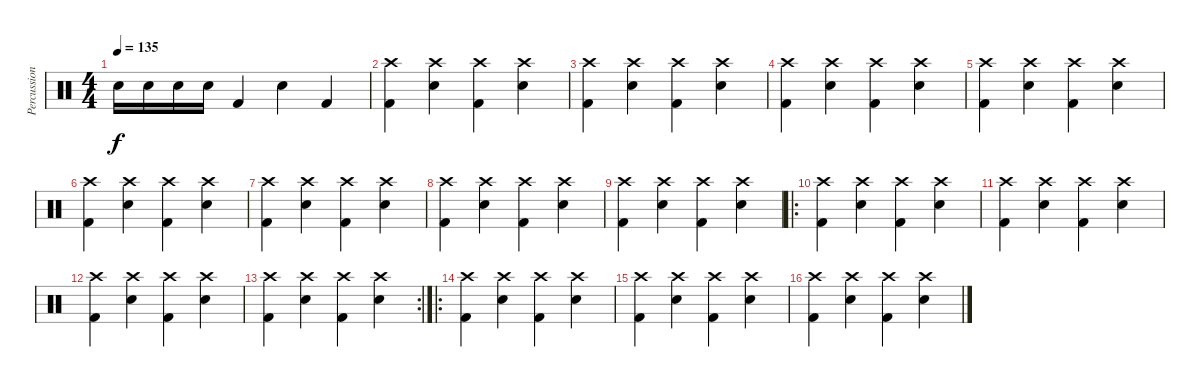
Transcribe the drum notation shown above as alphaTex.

\track ("Percussion" "Percussion") {instrument percussion}
\staff {score}
\articulation defaults
\ts (4 4)
\tempo 135
\clef neutral
\ks c "Electric Snare (hit)".16{dy f} "Electric Snare (hit)".16 "Electric Snare (hit)".16 "Electric Snare (hit)".16 "Kick (hit) 2".4 "Electric Snare (hit)".4 "Kick (hit) 2".4
|
("Kick (hit) 2" "Crash high (hit)").4 ("Electric Snare (hit)" "Crash high (hit)").4 ("Kick (hit) 2" "Crash high (hit)").4 ("Electric Snare (hit)" "Crash high (hit)").4 |
("Kick (hit) 2" "Crash high (hit)").4 ("Electric Snare (hit)" "Crash high (hit)").4 ("Kick (hit) 2" "Crash high (hit)").4 ("Electric Snare (hit)" "Crash high (hit)").4 |
("Kick (hit) 2" "Crash high (hit)").4 ("Electric Snare (hit)" "Crash high (hit)").4 ("Kick (hit) 2" "Crash high (hit)").4 ("Electric Snare (hit)" "Crash high (hit)").4 |
("Kick (hit) 2" "Crash high (hit)").4 ("Electric Snare (hit)" "Crash high (hit)").4 ("Kick (hit) 2" "Crash high (hit)").4 ("Electric Snare (hit)" "Crash high (hit)").4 |
("Kick (hit) 2" "Crash high (hit)").4 ("Electric Snare (hit)" "Crash high (hit)").4 ("Kick (hit) 2" "Crash high (hit)").4 ("Electric Snare (hit)" "Crash high (hit)").4 |
("Kick (hit) 2" "Crash high (hit)").4 ("Electric Snare (hit)" "Crash high (hit)").4 ("Kick (hit) 2" "Crash high (hit)").4 ("Electric Snare (hit)" "Crash high (hit)").4 |
("Kick (hit) 2" "Crash high (hit)").4 ("Electric Snare (hit)" "Crash high (hit)").4 ("Kick (hit) 2" "Crash high (hit)").4 ("Electric Snare (hit)" "Crash high (hit)").4 |
("Kick (hit) 2" "Crash high (hit)").4 ("Electric Snare (hit)" "Crash high (hit)").4 ("Kick (hit) 2" "Crash high (hit)").4 ("Electric Snare (hit)" "Crash high (hit)").4 |
\ro
("Kick (hit) 2" "Crash high (hit)").4 ("Electric Snare (hit)" "Crash high (hit)").4 ("Kick (hit) 2" "Crash high (hit)").4 ("Electric Snare (hit)" "Crash high (hit)").4 |
("Kick (hit) 2" "Crash high (hit)").4 ("Electric Snare (hit)" "Crash high (hit)").4 ("Kick (hit) 2" "Crash high (hit)").4 ("Electric Snare (hit)" "Crash high (hit)").4 |
("Kick (hit) 2" "Crash high (hit)").4 ("Electric Snare (hit)" "Crash high (hit)").4 ("Kick (hit) 2" "Crash high (hit)").4 ("Electric Snare (hit)" "Crash high (hit)").4 |
\rc 2
("Kick (hit) 2" "Crash high (hit)").4 ("Electric Snare (hit)" "Crash high (hit)").4 ("Kick (hit) 2" "Crash high (hit)").4 ("Electric Snare (hit)" "Crash high (hit)").4 |
\ro
("Kick (hit) 2" "Crash high (hit)").4 ("Electric Snare (hit)" "Crash high (hit)").4 ("Kick (hit) 2" "Crash high (hit)").4 ("Electric Snare (hit)" "Crash high (hit)").4 |
("Kick (hit) 2" "Crash high (hit)").4 ("Electric Snare (hit)" "Crash high (hit)").4 ("Kick (hit) 2" "Crash high (hit)").4 ("Electric Snare (hit)" "Crash high (hit)").4 |
("Kick (hit) 2" "Crash high (hit)").4 ("Electric Snare (hit)" "Crash high (hit)").4 ("Kick (hit) 2" "Crash high (hit)").4 ("Electric Snare (hit)" "Crash high (hit)").4
